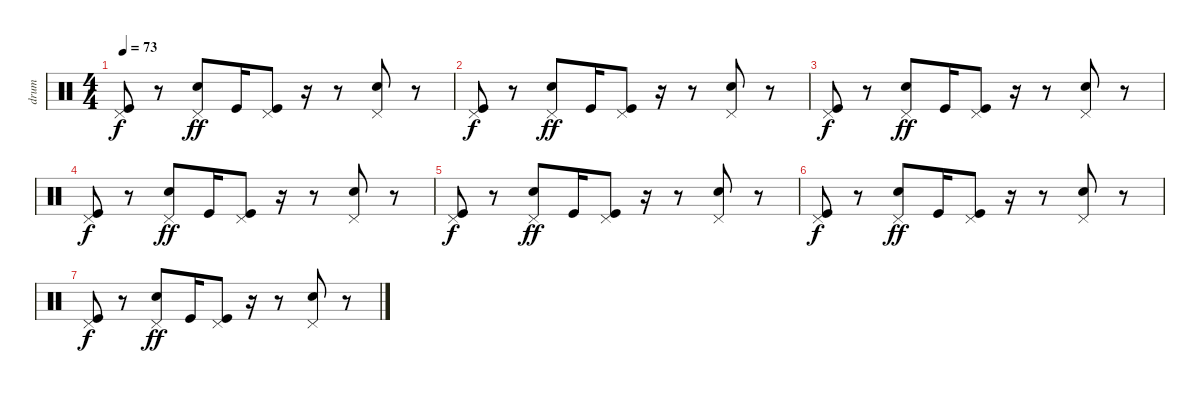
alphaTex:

\track ("drum" "drum") {instrument percussion}
\staff {score}
\articulation defaults
\ts (4 4)
\tempo 73
\clef neutral
\ks c
("Pedal Hi-Hat (hit)" "Kick (hit)").8{dy f} r.8 ("Pedal Hi-Hat (hit)" "Snare (hit) 2").8{dy ff} "Kick (hit)".16 ("Pedal Hi-Hat (hit)" "Kick (hit)").8 r.16 r.8 ("Pedal Hi-Hat (hit)" "Snare (hit) 2").8 r.8 |
("Pedal Hi-Hat (hit)" "Kick (hit)").8{dy f volume 11} r.8 ("Pedal Hi-Hat (hit)" "Snare (hit) 2").8{dy ff} "Kick (hit)".16 ("Pedal Hi-Hat (hit)" "Kick (hit)").8 r.16 r.8 ("Pedal Hi-Hat (hit)" "Snare (hit) 2").8 r.8 |
("Pedal Hi-Hat (hit)" "Kick (hit)").8{dy f volume 8} r.8 ("Pedal Hi-Hat (hit)" "Snare (hit) 2").8{dy ff} "Kick (hit)".16 ("Pedal Hi-Hat (hit)" "Kick (hit)").8 r.16 r.8 ("Pedal Hi-Hat (hit)" "Snare (hit) 2").8 r.8 |
("Pedal Hi-Hat (hit)" "Kick (hit)").8{dy f} r.8 ("Pedal Hi-Hat (hit)" "Snare (hit) 2").8{dy ff} "Kick (hit)".16 ("Pedal Hi-Hat (hit)" "Kick (hit)").8 r.16 r.8 ("Pedal Hi-Hat (hit)" "Snare (hit) 2").8 r.8 |
("Pedal Hi-Hat (hit)" "Kick (hit)").8{dy f volume 6} r.8 ("Pedal Hi-Hat (hit)" "Snare (hit) 2").8{dy ff} "Kick (hit)".16 ("Pedal Hi-Hat (hit)" "Kick (hit)").8 r.16 r.8 ("Pedal Hi-Hat (hit)" "Snare (hit) 2").8 r.8 |
("Pedal Hi-Hat (hit)" "Kick (hit)").8{dy f} r.8 ("Pedal Hi-Hat (hit)" "Snare (hit) 2").8{dy ff} "Kick (hit)".16 ("Pedal Hi-Hat (hit)" "Kick (hit)").8 r.16 r.8 ("Pedal Hi-Hat (hit)" "Snare (hit) 2").8 r.8 |
("Pedal Hi-Hat (hit)" "Kick (hit)").8{dy f volume 3} r.8 ("Pedal Hi-Hat (hit)" "Snare (hit) 2").8{dy ff} "Kick (hit)".16 ("Pedal Hi-Hat (hit)" "Kick (hit)").8 r.16 r.8 ("Pedal Hi-Hat (hit)" "Snare (hit) 2").8 r.8
